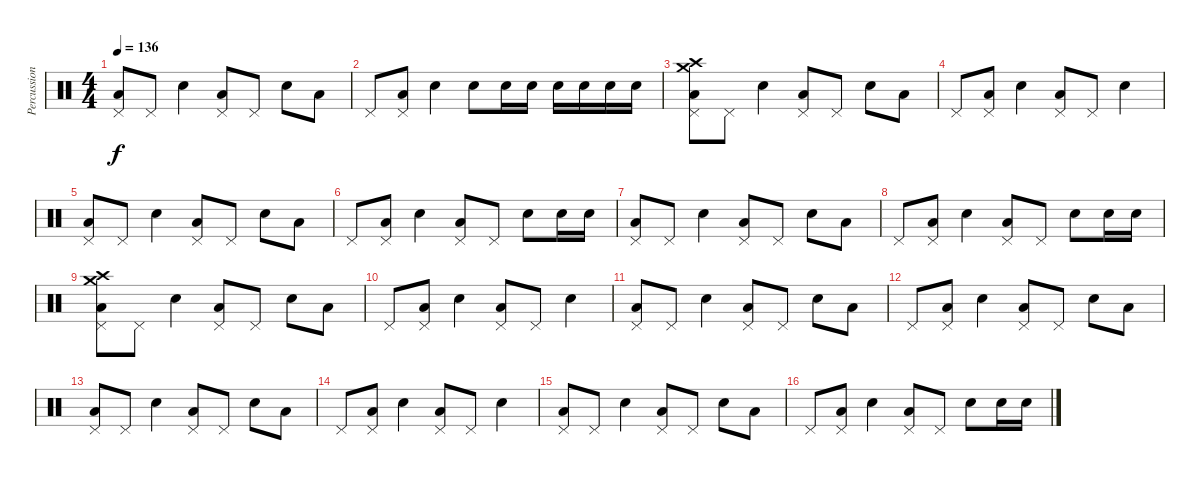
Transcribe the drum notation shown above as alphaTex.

\track ("Percussions" "Percussion") {instrument percussion}
\staff {score}
\articulation defaults
\ts (4 4)
\tempo 136
\clef neutral
\ks c
("Low Floor Tom (hit)" "Pedal Hi-Hat (hit)").8{dy f} "Pedal Hi-Hat (hit)".8 "Snare (hit) 2".4 ("Low Floor Tom (hit)" "Pedal Hi-Hat (hit)").8 "Pedal Hi-Hat (hit)".8 "Snare (hit) 2".8 "Low Floor Tom (hit)".8 |
"Pedal Hi-Hat (hit)".8 ("Low Floor Tom (hit)" "Pedal Hi-Hat (hit)").8 "Snare (hit) 2".4 "Snare (hit) 2".8 "Snare (hit) 2".16 "Snare (hit) 2".16 "Snare (hit) 2".16 "Snare (hit) 2".16 "Snare (hit) 2".16 "Snare (hit) 2".16 |
("Low Floor Tom (hit)" "Pedal Hi-Hat (hit)" "Crash high (hit)" "Crash medium (hit)").8 "Pedal Hi-Hat (hit)".8 "Snare (hit) 2".4 ("Low Floor Tom (hit)" "Pedal Hi-Hat (hit)").8 "Pedal Hi-Hat (hit)".8 "Snare (hit) 2".8 "Low Floor Tom (hit)".8 |
"Pedal Hi-Hat (hit)".8 ("Low Floor Tom (hit)" "Pedal Hi-Hat (hit)").8 "Snare (hit) 2".4 ("Low Floor Tom (hit)" "Pedal Hi-Hat (hit)").8 "Pedal Hi-Hat (hit)".8 "Snare (hit) 2".4 |
("Low Floor Tom (hit)" "Pedal Hi-Hat (hit)").8 "Pedal Hi-Hat (hit)".8 "Snare (hit) 2".4 ("Low Floor Tom (hit)" "Pedal Hi-Hat (hit)").8 "Pedal Hi-Hat (hit)".8 "Snare (hit) 2".8 "Low Floor Tom (hit)".8 |
"Pedal Hi-Hat (hit)".8 ("Low Floor Tom (hit)" "Pedal Hi-Hat (hit)").8 "Snare (hit) 2".4 ("Low Floor Tom (hit)" "Pedal Hi-Hat (hit)").8 "Pedal Hi-Hat (hit)".8 "Snare (hit) 2".8 "Snare (hit) 2".16 "Snare (hit) 2".16 |
("Low Floor Tom (hit)" "Pedal Hi-Hat (hit)").8 "Pedal Hi-Hat (hit)".8 "Snare (hit) 2".4 ("Low Floor Tom (hit)" "Pedal Hi-Hat (hit)").8 "Pedal Hi-Hat (hit)".8 "Snare (hit) 2".8 "Low Floor Tom (hit)".8 |
"Pedal Hi-Hat (hit)".8 ("Low Floor Tom (hit)" "Pedal Hi-Hat (hit)").8 "Snare (hit) 2".4 ("Low Floor Tom (hit)" "Pedal Hi-Hat (hit)").8 "Pedal Hi-Hat (hit)".8 "Snare (hit) 2".8 "Snare (hit) 2".16 "Snare (hit) 2".16 |
("Low Floor Tom (hit)" "Pedal Hi-Hat (hit)" "Crash high (hit)" "Crash medium (hit)").8 "Pedal Hi-Hat (hit)".8 "Snare (hit) 2".4 ("Low Floor Tom (hit)" "Pedal Hi-Hat (hit)").8 "Pedal Hi-Hat (hit)".8 "Snare (hit) 2".8 "Low Floor Tom (hit)".8 |
"Pedal Hi-Hat (hit)".8 ("Low Floor Tom (hit)" "Pedal Hi-Hat (hit)").8 "Snare (hit) 2".4 ("Low Floor Tom (hit)" "Pedal Hi-Hat (hit)").8 "Pedal Hi-Hat (hit)".8 "Snare (hit) 2".4 |
("Low Floor Tom (hit)" "Pedal Hi-Hat (hit)").8 "Pedal Hi-Hat (hit)".8 "Snare (hit) 2".4 ("Low Floor Tom (hit)" "Pedal Hi-Hat (hit)").8 "Pedal Hi-Hat (hit)".8 "Snare (hit) 2".8 "Low Floor Tom (hit)".8 |
"Pedal Hi-Hat (hit)".8 ("Low Floor Tom (hit)" "Pedal Hi-Hat (hit)").8 "Snare (hit) 2".4 ("Low Floor Tom (hit)" "Pedal Hi-Hat (hit)").8 "Pedal Hi-Hat (hit)".8 "Snare (hit) 2".8 "Low Floor Tom (hit)".8 |
("Low Floor Tom (hit)" "Pedal Hi-Hat (hit)").8 "Pedal Hi-Hat (hit)".8 "Snare (hit) 2".4 ("Low Floor Tom (hit)" "Pedal Hi-Hat (hit)").8 "Pedal Hi-Hat (hit)".8 "Snare (hit) 2".8 "Low Floor Tom (hit)".8 |
"Pedal Hi-Hat (hit)".8 ("Low Floor Tom (hit)" "Pedal Hi-Hat (hit)").8 "Snare (hit) 2".4 ("Low Floor Tom (hit)" "Pedal Hi-Hat (hit)").8 "Pedal Hi-Hat (hit)".8 "Snare (hit) 2".4 |
("Low Floor Tom (hit)" "Pedal Hi-Hat (hit)").8 "Pedal Hi-Hat (hit)".8 "Snare (hit) 2".4 ("Low Floor Tom (hit)" "Pedal Hi-Hat (hit)").8 "Pedal Hi-Hat (hit)".8 "Snare (hit) 2".8 "Low Floor Tom (hit)".8 |
"Pedal Hi-Hat (hit)".8 ("Low Floor Tom (hit)" "Pedal Hi-Hat (hit)").8 "Snare (hit) 2".4 ("Low Floor Tom (hit)" "Pedal Hi-Hat (hit)").8 "Pedal Hi-Hat (hit)".8 "Snare (hit) 2".8 "Snare (hit) 2".16 "Snare (hit) 2".16
